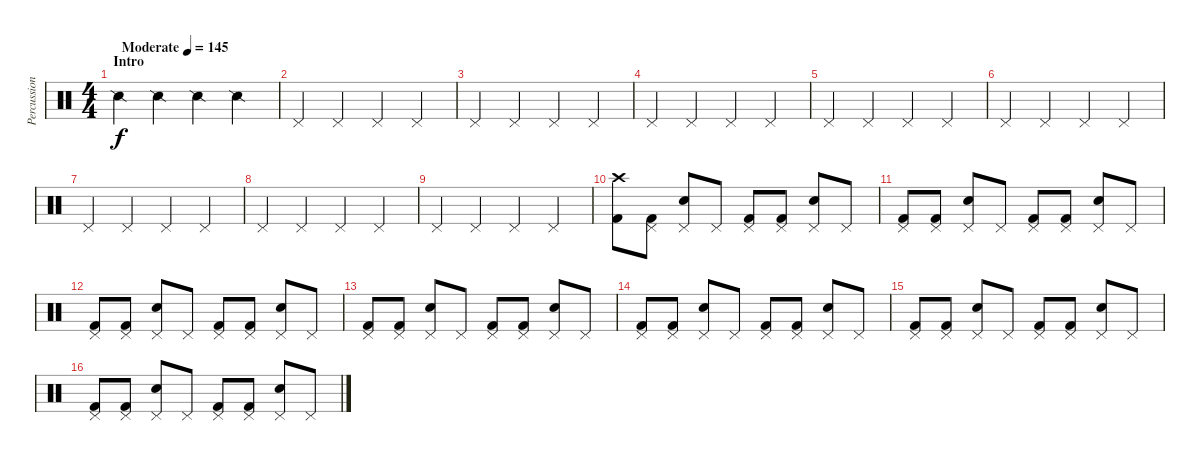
\track ("Percussion" "Percussion") {instrument percussion}
\staff {score}
\articulation defaults
\ts (4 4)
\section ("" "Intro")
\tempo (145 "Moderate")
\clef neutral
\ks c "Snare (side stick) 2".4{dy f} "Snare (side stick) 2".4 "Snare (side stick) 2".4 "Snare (side stick) 2".4
|
"Pedal Hi-Hat (hit)".4 "Pedal Hi-Hat (hit)".4 "Pedal Hi-Hat (hit)".4 "Pedal Hi-Hat (hit)".4 |
"Pedal Hi-Hat (hit)".4 "Pedal Hi-Hat (hit)".4 "Pedal Hi-Hat (hit)".4 "Pedal Hi-Hat (hit)".4 |
"Pedal Hi-Hat (hit)".4 "Pedal Hi-Hat (hit)".4 "Pedal Hi-Hat (hit)".4 "Pedal Hi-Hat (hit)".4 |
"Pedal Hi-Hat (hit)".4 "Pedal Hi-Hat (hit)".4 "Pedal Hi-Hat (hit)".4 "Pedal Hi-Hat (hit)".4 |
"Pedal Hi-Hat (hit)".4 "Pedal Hi-Hat (hit)".4 "Pedal Hi-Hat (hit)".4 "Pedal Hi-Hat (hit)".4 |
"Pedal Hi-Hat (hit)".4 "Pedal Hi-Hat (hit)".4 "Pedal Hi-Hat (hit)".4 "Pedal Hi-Hat (hit)".4 |
"Pedal Hi-Hat (hit)".4 "Pedal Hi-Hat (hit)".4 "Pedal Hi-Hat (hit)".4 "Pedal Hi-Hat (hit)".4 |
"Pedal Hi-Hat (hit)".4 "Pedal Hi-Hat (hit)".4 "Pedal Hi-Hat (hit)".4 "Pedal Hi-Hat (hit)".4 |
("Crash high (hit)" "Kick (hit) 2").8 ("Pedal Hi-Hat (hit)" "Kick (hit) 2").8 ("Pedal Hi-Hat (hit)" "Snare (hit) 2").8 "Pedal Hi-Hat (hit)".8 ("Pedal Hi-Hat (hit)" "Kick (hit) 2").8 ("Pedal Hi-Hat (hit)" "Kick (hit) 2").8 ("Pedal Hi-Hat (hit)" "Snare (hit) 2").8 "Pedal Hi-Hat (hit)".8 |
("Pedal Hi-Hat (hit)" "Kick (hit) 2").8 ("Pedal Hi-Hat (hit)" "Kick (hit) 2").8 ("Pedal Hi-Hat (hit)" "Snare (hit) 2").8 "Pedal Hi-Hat (hit)".8 ("Pedal Hi-Hat (hit)" "Kick (hit) 2").8 ("Pedal Hi-Hat (hit)" "Kick (hit) 2").8 ("Pedal Hi-Hat (hit)" "Snare (hit) 2").8 "Pedal Hi-Hat (hit)".8 |
("Pedal Hi-Hat (hit)" "Kick (hit) 2").8 ("Pedal Hi-Hat (hit)" "Kick (hit) 2").8 ("Pedal Hi-Hat (hit)" "Snare (hit) 2").8 "Pedal Hi-Hat (hit)".8 ("Pedal Hi-Hat (hit)" "Kick (hit) 2").8 ("Pedal Hi-Hat (hit)" "Kick (hit) 2").8 ("Pedal Hi-Hat (hit)" "Snare (hit) 2").8 "Pedal Hi-Hat (hit)".8 |
("Pedal Hi-Hat (hit)" "Kick (hit) 2").8 ("Pedal Hi-Hat (hit)" "Kick (hit) 2").8 ("Pedal Hi-Hat (hit)" "Snare (hit) 2").8 "Pedal Hi-Hat (hit)".8 ("Pedal Hi-Hat (hit)" "Kick (hit) 2").8 ("Pedal Hi-Hat (hit)" "Kick (hit) 2").8 ("Pedal Hi-Hat (hit)" "Snare (hit) 2").8 "Pedal Hi-Hat (hit)".8 |
("Pedal Hi-Hat (hit)" "Kick (hit) 2").8 ("Pedal Hi-Hat (hit)" "Kick (hit) 2").8 ("Pedal Hi-Hat (hit)" "Snare (hit) 2").8 "Pedal Hi-Hat (hit)".8 ("Pedal Hi-Hat (hit)" "Kick (hit) 2").8 ("Pedal Hi-Hat (hit)" "Kick (hit) 2").8 ("Pedal Hi-Hat (hit)" "Snare (hit) 2").8 "Pedal Hi-Hat (hit)".8 |
("Pedal Hi-Hat (hit)" "Kick (hit) 2").8 ("Pedal Hi-Hat (hit)" "Kick (hit) 2").8 ("Pedal Hi-Hat (hit)" "Snare (hit) 2").8 "Pedal Hi-Hat (hit)".8 ("Pedal Hi-Hat (hit)" "Kick (hit) 2").8 ("Pedal Hi-Hat (hit)" "Kick (hit) 2").8 ("Pedal Hi-Hat (hit)" "Snare (hit) 2").8 "Pedal Hi-Hat (hit)".8 |
("Pedal Hi-Hat (hit)" "Kick (hit) 2").8 ("Pedal Hi-Hat (hit)" "Kick (hit) 2").8 ("Pedal Hi-Hat (hit)" "Snare (hit) 2").8 "Pedal Hi-Hat (hit)".8 ("Pedal Hi-Hat (hit)" "Kick (hit) 2").8 ("Pedal Hi-Hat (hit)" "Kick (hit) 2").8 ("Pedal Hi-Hat (hit)" "Snare (hit) 2").8 "Pedal Hi-Hat (hit)".8
